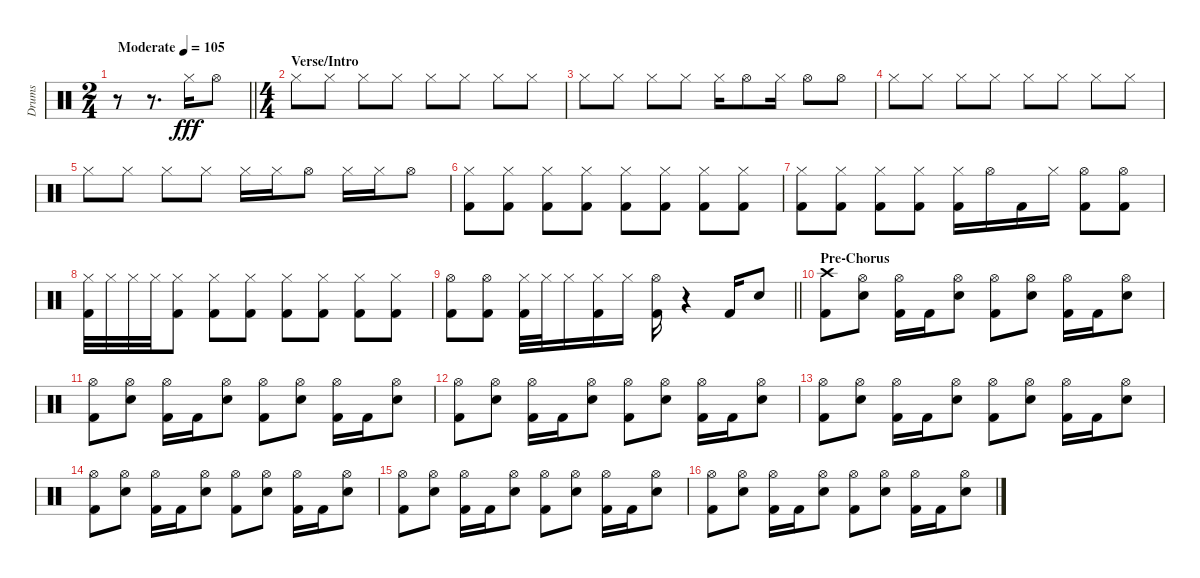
\track ("Drums" "Drums") {instrument percussion}
\staff {score}
\articulation defaults
\ts (2 4)
\tempo (105 "Moderate")
\clef neutral
\barLineRight lightlight
\ks c
r.8{dy fff} r.8{d} "Hi-Hat (closed)".16 "Hi-Hat (open)".8 |
\ts (4 4)
\section ("" "Verse/Intro")
"Hi-Hat (closed)".8 "Hi-Hat (closed)".8 "Hi-Hat (closed)".8 "Hi-Hat (closed)".8 "Hi-Hat (closed)".8 "Hi-Hat (closed)".8 "Hi-Hat (closed)".8 "Hi-Hat (closed)".8 |
"Hi-Hat (closed)".8 "Hi-Hat (closed)".8 "Hi-Hat (closed)".8 "Hi-Hat (closed)".8 "Hi-Hat (closed)".16 "Hi-Hat (open)".8 "Hi-Hat (closed)".16 "Hi-Hat (open)".8 "Hi-Hat (open)".8 |
"Hi-Hat (closed)".8 "Hi-Hat (closed)".8 "Hi-Hat (closed)".8 "Hi-Hat (closed)".8 "Hi-Hat (closed)".8 "Hi-Hat (closed)".8 "Hi-Hat (closed)".8 "Hi-Hat (closed)".8 |
"Hi-Hat (closed)".8 "Hi-Hat (closed)".8 "Hi-Hat (closed)".8 "Hi-Hat (closed)".8 "Hi-Hat (closed)".16 "Hi-Hat (closed)".16 "Hi-Hat (open)".8 "Hi-Hat (closed)".16 "Hi-Hat (closed)".16 "Hi-Hat (open)".8 |
("Hi-Hat (closed)" "Kick (hit) 2").8 ("Hi-Hat (closed)" "Kick (hit) 2").8 ("Hi-Hat (closed)" "Kick (hit) 2").8 ("Hi-Hat (closed)" "Kick (hit) 2").8 ("Hi-Hat (closed)" "Kick (hit) 2").8 ("Hi-Hat (closed)" "Kick (hit) 2").8 ("Hi-Hat (closed)" "Kick (hit) 2").8 ("Hi-Hat (closed)" "Kick (hit) 2").8 |
("Hi-Hat (closed)" "Kick (hit) 2").8 ("Hi-Hat (closed)" "Kick (hit) 2").8 ("Hi-Hat (closed)" "Kick (hit) 2").8 ("Hi-Hat (closed)" "Kick (hit) 2").8 ("Hi-Hat (closed)" "Kick (hit) 2").16 "Hi-Hat (open)".16 "Kick (hit) 2".16 "Hi-Hat (closed)".16 ("Hi-Hat (open)" "Kick (hit) 2").8 ("Hi-Hat (open)" "Kick (hit) 2").8 |
("Hi-Hat (closed)" "Kick (hit) 2").32 "Hi-Hat (closed)".32 "Hi-Hat (closed)".32 "Hi-Hat (closed)".32 ("Hi-Hat (closed)" "Kick (hit) 2").8 ("Hi-Hat (closed)" "Kick (hit) 2").8 ("Hi-Hat (closed)" "Kick (hit) 2").8 ("Hi-Hat (closed)" "Kick (hit) 2").8 ("Hi-Hat (closed)" "Kick (hit) 2").8 ("Hi-Hat (closed)" "Kick (hit) 2").8 ("Hi-Hat (closed)" "Kick (hit) 2").8 |
\barLineRight lightlight
("Hi-Hat (open)" "Kick (hit) 2").8 ("Hi-Hat (open)" "Kick (hit) 2").8 ("Hi-Hat (closed)" "Kick (hit) 2").32 "Hi-Hat (closed)".32 "Hi-Hat (closed)".16 ("Hi-Hat (closed)" "Kick (hit) 2").16 "Hi-Hat (closed)".16 ("Hi-Hat (open)" "Kick (hit) 2").16 r.4 "Kick (hit) 2".16 "Electric Snare (hit)".8 |
\section ("" "Pre-Chorus")
("Crash high (hit)" "Kick (hit) 2").8 ("Hi-Hat (open)" "Electric Snare (hit)").8 ("Hi-Hat (open)" "Kick (hit) 2").16 "Kick (hit) 2".16 ("Hi-Hat (open)" "Electric Snare (hit)").8 ("Hi-Hat (open)" "Kick (hit) 2").8 ("Hi-Hat (open)" "Electric Snare (hit)").8 ("Hi-Hat (open)" "Kick (hit) 2").16 "Kick (hit) 2".16 ("Hi-Hat (open)" "Electric Snare (hit)").8 |
("Hi-Hat (open)" "Kick (hit) 2").8 ("Hi-Hat (open)" "Electric Snare (hit)").8 ("Hi-Hat (open)" "Kick (hit) 2").16 "Kick (hit) 2".16 ("Hi-Hat (open)" "Electric Snare (hit)").8 ("Hi-Hat (open)" "Kick (hit) 2").8 ("Hi-Hat (open)" "Electric Snare (hit)").8 ("Hi-Hat (open)" "Kick (hit) 2").16 "Kick (hit) 2".16 ("Hi-Hat (open)" "Electric Snare (hit)").8 |
("Hi-Hat (open)" "Kick (hit) 2").8 ("Hi-Hat (open)" "Electric Snare (hit)").8 ("Hi-Hat (open)" "Kick (hit) 2").16 "Kick (hit) 2".16 ("Hi-Hat (open)" "Electric Snare (hit)").8 ("Hi-Hat (open)" "Kick (hit) 2").8 ("Hi-Hat (open)" "Electric Snare (hit)").8 ("Hi-Hat (open)" "Kick (hit) 2").16 "Kick (hit) 2".16 ("Hi-Hat (open)" "Electric Snare (hit)").8 |
("Hi-Hat (open)" "Kick (hit) 2").8 ("Hi-Hat (open)" "Electric Snare (hit)").8 ("Hi-Hat (open)" "Kick (hit) 2").16 "Kick (hit) 2".16 ("Hi-Hat (open)" "Electric Snare (hit)").8 ("Hi-Hat (open)" "Kick (hit) 2").8 ("Hi-Hat (open)" "Electric Snare (hit)").8 ("Hi-Hat (open)" "Kick (hit) 2").16 "Kick (hit) 2".16 ("Hi-Hat (open)" "Electric Snare (hit)").8 |
("Hi-Hat (open)" "Kick (hit) 2").8 ("Hi-Hat (open)" "Electric Snare (hit)").8 ("Hi-Hat (open)" "Kick (hit) 2").16 "Kick (hit) 2".16 ("Hi-Hat (open)" "Electric Snare (hit)").8 ("Hi-Hat (open)" "Kick (hit) 2").8 ("Hi-Hat (open)" "Electric Snare (hit)").8 ("Hi-Hat (open)" "Kick (hit) 2").16 "Kick (hit) 2".16 ("Hi-Hat (open)" "Electric Snare (hit)").8 |
("Hi-Hat (open)" "Kick (hit) 2").8 ("Hi-Hat (open)" "Electric Snare (hit)").8 ("Hi-Hat (open)" "Kick (hit) 2").16 "Kick (hit) 2".16 ("Hi-Hat (open)" "Electric Snare (hit)").8 ("Hi-Hat (open)" "Kick (hit) 2").8 ("Hi-Hat (open)" "Electric Snare (hit)").8 ("Hi-Hat (open)" "Kick (hit) 2").16 "Kick (hit) 2".16 ("Hi-Hat (open)" "Electric Snare (hit)").8 |
("Hi-Hat (open)" "Kick (hit) 2").8 ("Hi-Hat (open)" "Electric Snare (hit)").8 ("Hi-Hat (open)" "Kick (hit) 2").16 "Kick (hit) 2".16 ("Hi-Hat (open)" "Electric Snare (hit)").8 ("Hi-Hat (open)" "Kick (hit) 2").8 ("Hi-Hat (open)" "Electric Snare (hit)").8 ("Hi-Hat (open)" "Kick (hit) 2").16 "Kick (hit) 2".16 ("Hi-Hat (open)" "Electric Snare (hit)").8
